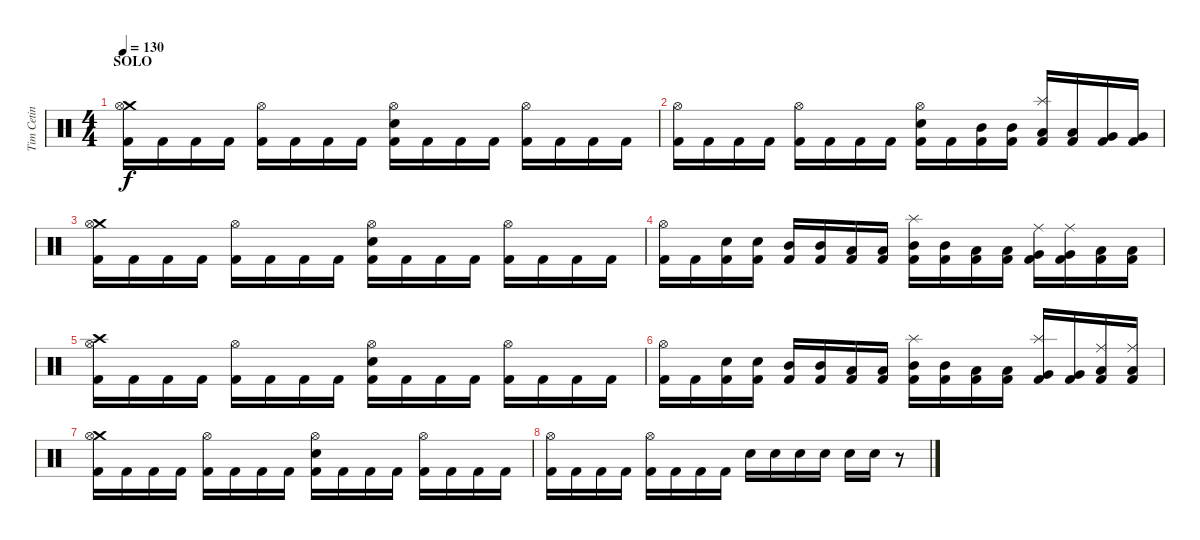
\track ("Tim Cetin" "Tim Cetin") {instrument percussion}
\staff {score}
\articulation defaults
\ts (4 4)
\section ("" "SOLO")
\tempo 130
\clef neutral
\ks c
("Crash medium (hit)" "Hi-Hat (open)" "Kick (hit) 2").16{dy f} "Kick (hit) 2".16 "Kick (hit) 2".16 "Kick (hit) 2".16 ("Hi-Hat (open)" "Kick (hit) 2").16 "Kick (hit) 2".16 "Kick (hit) 2".16 "Kick (hit) 2".16 ("Hi-Hat (open)" "Electric Snare (hit)" "Kick (hit) 2").16 "Kick (hit) 2".16 "Kick (hit) 2".16 "Kick (hit) 2".16 ("Hi-Hat (open)" "Kick (hit) 2").16 "Kick (hit) 2".16 "Kick (hit) 2".16 "Kick (hit) 2".16 |
("Hi-Hat (open)" "Kick (hit) 2").16 "Kick (hit) 2".16 "Kick (hit) 2".16 "Kick (hit) 2".16 ("Hi-Hat (open)" "Kick (hit) 2").16 "Kick (hit) 2".16 "Kick (hit) 2".16 "Kick (hit) 2".16 ("Hi-Hat (open)" "Electric Snare (hit)" "Kick (hit) 2").16 "Kick (hit) 2".16 ("Mid Tom (hit)" "Kick (hit) 2").16 ("Mid Tom (hit)" "Kick (hit) 2").16 ("Splash (hit)" "Low Tom (hit)" "Kick (hit) 2").16 ("Low Tom (hit)" "Kick (hit) 2").16 ("Very Low Tom (hit)" "Kick (hit) 2").16 ("Very Low Tom (hit)" "Kick (hit) 2").16 |
("Crash medium (hit)" "Hi-Hat (open)" "Kick (hit) 2").16 "Kick (hit) 2".16 "Kick (hit) 2".16 "Kick (hit) 2".16 ("Hi-Hat (open)" "Kick (hit) 2").16 "Kick (hit) 2".16 "Kick (hit) 2".16 "Kick (hit) 2".16 ("Hi-Hat (open)" "Electric Snare (hit)" "Kick (hit) 2").16 "Kick (hit) 2".16 "Kick (hit) 2".16 "Kick (hit) 2".16 ("Hi-Hat (open)" "Kick (hit) 2").16 "Kick (hit) 2".16 "Kick (hit) 2".16 "Kick (hit) 2".16 |
("Hi-Hat (open)" "Kick (hit) 2").16 "Kick (hit) 2".16 ("Snare (hit) 2" "Kick (hit) 2").16 ("Snare (hit) 2" "Kick (hit) 2").16 ("Mid Tom (hit)" "Kick (hit) 2").16 ("Mid Tom (hit)" "Kick (hit) 2").16 ("Low Tom (hit)" "Kick (hit) 2").16 ("Low Tom (hit)" "Kick (hit) 2").16 ("Splash (hit)" "Mid Tom (hit)" "Kick (hit) 2").16 ("Mid Tom (hit)" "Kick (hit) 2").16 ("Low Tom (hit)" "Kick (hit) 2").16 ("Low Tom (hit)" "Kick (hit) 2").16 ("Ride (middle)" "Very Low Tom (hit)" "Kick (hit) 2").16 ("Ride (middle)" "Very Low Tom (hit)" "Kick (hit) 2").16 ("Low Floor Tom (hit)" "Kick (hit) 2").16 ("Low Floor Tom (hit)" "Kick (hit) 2").16 |
("Crash high (hit)" "Hi-Hat (open)" "Kick (hit) 2").16 "Kick (hit) 2".16 "Kick (hit) 2".16 "Kick (hit) 2".16 ("Hi-Hat (open)" "Kick (hit) 2").16 "Kick (hit) 2".16 "Kick (hit) 2".16 "Kick (hit) 2".16 ("Hi-Hat (open)" "Electric Snare (hit)" "Kick (hit) 2").16 "Kick (hit) 2".16 "Kick (hit) 2".16 "Kick (hit) 2".16 ("Hi-Hat (open)" "Kick (hit) 2").16 "Kick (hit) 2".16 "Kick (hit) 2".16 "Kick (hit) 2".16 |
("Hi-Hat (open)" "Kick (hit) 2").16 "Kick (hit) 2".16 ("Snare (hit) 2" "Kick (hit) 2").16 ("Snare (hit) 2" "Kick (hit) 2").16 ("Mid Tom (hit)" "Kick (hit) 2").16 ("Mid Tom (hit)" "Kick (hit) 2").16 ("Low Tom (hit)" "Kick (hit) 2").16 ("Low Tom (hit)" "Kick (hit) 2").16 ("Splash (hit)" "Mid Tom (hit)" "Kick (hit) 2").16 ("Mid Tom (hit)" "Kick (hit) 2").16 ("Low Tom (hit)" "Kick (hit) 2").16 ("Low Tom (hit)" "Kick (hit) 2").16 ("Splash (hit)" "Very Low Tom (hit)" "Kick (hit) 2").16 ("Very Low Tom (hit)" "Kick (hit) 2").16 ("Ride (middle)" "Low Floor Tom (hit)" "Kick (hit) 2").16 ("Ride (middle)" "Low Floor Tom (hit)" "Kick (hit) 2").16 |
("Crash medium (hit)" "Hi-Hat (open)" "Kick (hit) 2").16 "Kick (hit) 2".16 "Kick (hit) 2".16 "Kick (hit) 2".16 ("Hi-Hat (open)" "Kick (hit) 2").16 "Kick (hit) 2".16 "Kick (hit) 2".16 "Kick (hit) 2".16 ("Hi-Hat (open)" "Electric Snare (hit)" "Kick (hit) 2").16 "Kick (hit) 2".16 "Kick (hit) 2".16 "Kick (hit) 2".16 ("Hi-Hat (open)" "Kick (hit) 2").16 "Kick (hit) 2".16 "Kick (hit) 2".16 "Kick (hit) 2".16 |
("Hi-Hat (open)" "Kick (hit) 2").16 "Kick (hit) 2".16 "Kick (hit) 2".16 "Kick (hit) 2".16 ("Hi-Hat (open)" "Kick (hit) 2").16 "Kick (hit) 2".16 "Kick (hit) 2".16 "Kick (hit) 2".16 "Electric Snare (hit)".16 "Electric Snare (hit)".16 "Electric Snare (hit)".16 "Electric Snare (hit)".16 "Electric Snare (hit)".16 "Electric Snare (hit)".16 r.8
